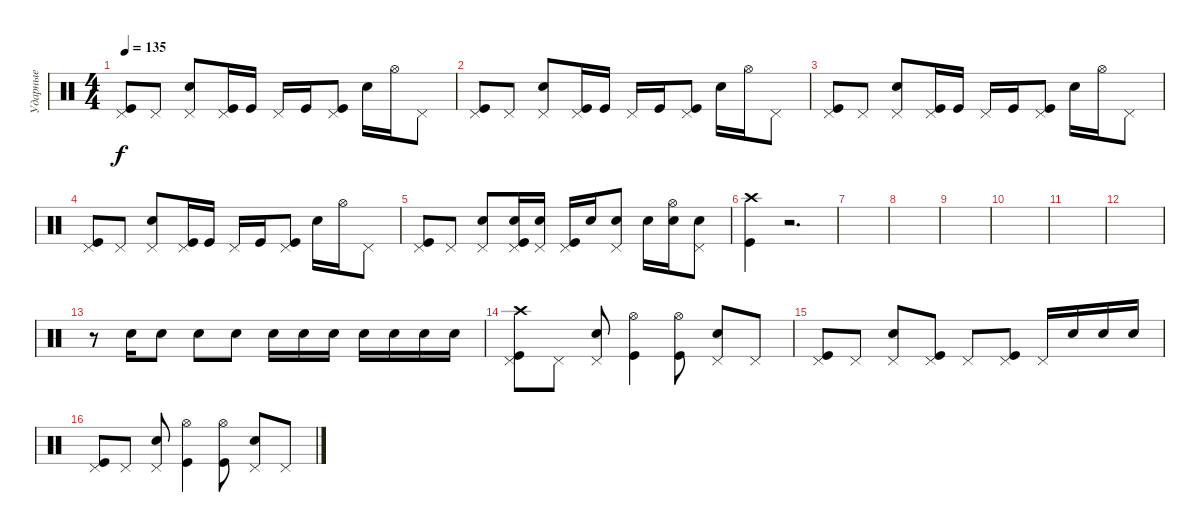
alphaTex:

\track ("Ударные" "Ударные") {instrument percussion}
\staff {score}
\articulation defaults
\ts (4 4)
\tempo 135
\clef neutral
\ks c
("Kick (hit)" "Pedal Hi-Hat (hit)").8{dy f} "Pedal Hi-Hat (hit)".8 ("Pedal Hi-Hat (hit)" "Electric Snare (hit)").8 ("Kick (hit)" "Pedal Hi-Hat (hit)").16 "Kick (hit)".16 "Pedal Hi-Hat (hit)".16 "Kick (hit)".16 ("Kick (hit)" "Pedal Hi-Hat (hit)").8 "Electric Snare (hit)".16 "Hi-Hat (open)".16 "Pedal Hi-Hat (hit)".8 |
("Kick (hit)" "Pedal Hi-Hat (hit)").8 "Pedal Hi-Hat (hit)".8 ("Pedal Hi-Hat (hit)" "Electric Snare (hit)").8 ("Kick (hit)" "Pedal Hi-Hat (hit)").16 "Kick (hit)".16 "Pedal Hi-Hat (hit)".16 "Kick (hit)".16 ("Kick (hit)" "Pedal Hi-Hat (hit)").8 "Electric Snare (hit)".16 "Hi-Hat (open)".16 "Pedal Hi-Hat (hit)".8 |
("Kick (hit)" "Pedal Hi-Hat (hit)").8 "Pedal Hi-Hat (hit)".8 ("Pedal Hi-Hat (hit)" "Electric Snare (hit)").8 ("Kick (hit)" "Pedal Hi-Hat (hit)").16 "Kick (hit)".16 "Pedal Hi-Hat (hit)".16 "Kick (hit)".16 ("Kick (hit)" "Pedal Hi-Hat (hit)").8 "Electric Snare (hit)".16 "Hi-Hat (open)".16 "Pedal Hi-Hat (hit)".8 |
("Kick (hit)" "Pedal Hi-Hat (hit)").8 "Pedal Hi-Hat (hit)".8 ("Pedal Hi-Hat (hit)" "Electric Snare (hit)").8 ("Kick (hit)" "Pedal Hi-Hat (hit)").16 "Kick (hit)".16 "Pedal Hi-Hat (hit)".16 "Kick (hit)".16 ("Kick (hit)" "Pedal Hi-Hat (hit)").8 "Electric Snare (hit)".16 "Hi-Hat (open)".16 "Pedal Hi-Hat (hit)".8 |
("Kick (hit)" "Pedal Hi-Hat (hit)").8 "Pedal Hi-Hat (hit)".8 ("Pedal Hi-Hat (hit)" "Electric Snare (hit)").8 ("Kick (hit)" "Pedal Hi-Hat (hit)" "Electric Snare (hit)").16 ("Pedal Hi-Hat (hit)" "Electric Snare (hit)").16 ("Kick (hit)" "Pedal Hi-Hat (hit)").16 "Electric Snare (hit)".16 ("Pedal Hi-Hat (hit)" "Electric Snare (hit)").8 "Electric Snare (hit)".16 ("Hi-Hat (open)" "Electric Snare (hit)").16 ("Pedal Hi-Hat (hit)" "Electric Snare (hit)").8 |
("Kick (hit)" "Crash high (hit)").4 r.2{d} |
|
|
|
|
|
|
r.8 "Electric Snare (hit)".16 "Electric Snare (hit)".8 "Electric Snare (hit)".8 "Electric Snare (hit)".8 "Electric Snare (hit)".16 "Electric Snare (hit)".16 "Electric Snare (hit)".16 "Electric Snare (hit)".16 "Electric Snare (hit)".16 "Electric Snare (hit)".16 "Electric Snare (hit)".16 |
("Kick (hit)" "Pedal Hi-Hat (hit)" "Crash high (hit)").8 "Pedal Hi-Hat (hit)".8 ("Pedal Hi-Hat (hit)" "Electric Snare (hit)").8 ("Kick (hit)" "Hi-Hat (open)").4 ("Kick (hit)" "Hi-Hat (open)").8 ("Pedal Hi-Hat (hit)" "Electric Snare (hit)").8 "Pedal Hi-Hat (hit)".8 |
("Kick (hit)" "Pedal Hi-Hat (hit)").8 "Pedal Hi-Hat (hit)".8 ("Pedal Hi-Hat (hit)" "Electric Snare (hit)").8 ("Kick (hit)" "Pedal Hi-Hat (hit)").8 "Pedal Hi-Hat (hit)".8 ("Kick (hit)" "Pedal Hi-Hat (hit)").8 "Pedal Hi-Hat (hit)".16 "Electric Snare (hit)".16 "Electric Snare (hit)".16 "Electric Snare (hit)".16 |
("Kick (hit)" "Pedal Hi-Hat (hit)").8 "Pedal Hi-Hat (hit)".8 ("Pedal Hi-Hat (hit)" "Electric Snare (hit)").8 ("Kick (hit)" "Hi-Hat (open)").4 ("Kick (hit)" "Hi-Hat (open)").8 ("Pedal Hi-Hat (hit)" "Electric Snare (hit)").8 "Pedal Hi-Hat (hit)".8
